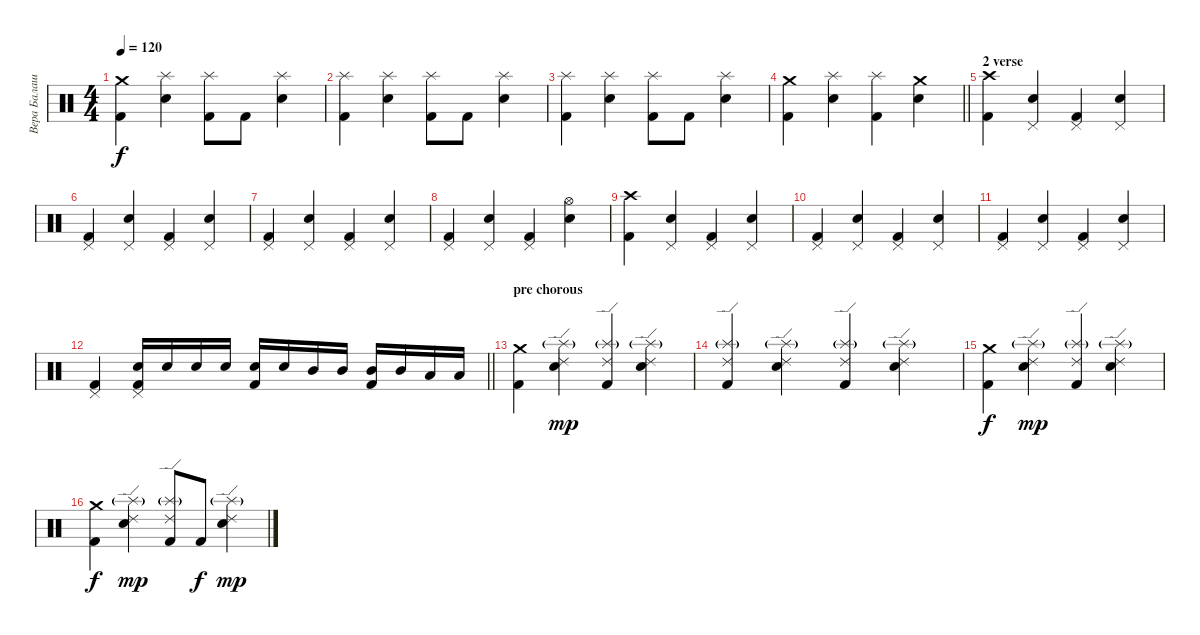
\track ("Вера Балашевич" "Вера Балаш") {instrument percussion}
\staff {score}
\articulation defaults
\ts (4 4)
\tempo 120
\clef neutral
\ks c
("Crash medium (hit)" "Kick (hit) 2").4{dy f} ("Splash (hit)" "Electric Snare (hit)").4 ("Splash (hit)" "Kick (hit) 2").8 "Kick (hit) 2".8 ("Splash (hit)" "Electric Snare (hit)").4 |
("Splash (hit)" "Kick (hit) 2").4 ("Splash (hit)" "Electric Snare (hit)").4 ("Splash (hit)" "Kick (hit) 2").8 "Kick (hit) 2".8 ("Splash (hit)" "Electric Snare (hit)").4 |
("Splash (hit)" "Kick (hit) 2").4 ("Splash (hit)" "Electric Snare (hit)").4 ("Splash (hit)" "Kick (hit) 2").8 "Kick (hit) 2".8 ("Splash (hit)" "Electric Snare (hit)").4 |
\barLineRight lightlight
("Crash medium (hit)" "Kick (hit) 2").4 ("Splash (hit)" "Electric Snare (hit)").4 ("Splash (hit)" "Kick (hit) 2").4 ("Crash medium (hit)" "Electric Snare (hit)").4 |
\section ("" "2 verse")
("Crash high (hit)" "Kick (hit) 2").4 ("Pedal Hi-Hat (hit)" "Electric Snare (hit)").4 ("Pedal Hi-Hat (hit)" "Kick (hit) 2").4 ("Pedal Hi-Hat (hit)" "Electric Snare (hit)").4 |
("Pedal Hi-Hat (hit)" "Kick (hit) 2").4 ("Pedal Hi-Hat (hit)" "Electric Snare (hit)").4 ("Pedal Hi-Hat (hit)" "Kick (hit) 2").4 ("Pedal Hi-Hat (hit)" "Electric Snare (hit)").4 |
("Pedal Hi-Hat (hit)" "Kick (hit) 2").4 ("Pedal Hi-Hat (hit)" "Electric Snare (hit)").4 ("Pedal Hi-Hat (hit)" "Kick (hit) 2").4 ("Pedal Hi-Hat (hit)" "Electric Snare (hit)").4 |
("Pedal Hi-Hat (hit)" "Kick (hit) 2").4 ("Pedal Hi-Hat (hit)" "Electric Snare (hit)").4 ("Pedal Hi-Hat (hit)" "Kick (hit) 2").4 ("Hi-Hat (open)" "Electric Snare (hit)").4 |
("Crash high (hit)" "Kick (hit) 2").4 ("Pedal Hi-Hat (hit)" "Electric Snare (hit)").4 ("Pedal Hi-Hat (hit)" "Kick (hit) 2").4 ("Pedal Hi-Hat (hit)" "Electric Snare (hit)").4 |
("Pedal Hi-Hat (hit)" "Kick (hit) 2").4 ("Pedal Hi-Hat (hit)" "Electric Snare (hit)").4 ("Pedal Hi-Hat (hit)" "Kick (hit) 2").4 ("Pedal Hi-Hat (hit)" "Electric Snare (hit)").4 |
("Pedal Hi-Hat (hit)" "Kick (hit) 2").4 ("Pedal Hi-Hat (hit)" "Electric Snare (hit)").4 ("Pedal Hi-Hat (hit)" "Kick (hit) 2").4 ("Pedal Hi-Hat (hit)" "Electric Snare (hit)").4 |
\barLineRight lightlight
("Pedal Hi-Hat (hit)" "Kick (hit) 2").4 ("Pedal Hi-Hat (hit)" "Electric Snare (hit)" "Kick (hit) 2").16 "Electric Snare (hit)".16 "Electric Snare (hit)".16 "Electric Snare (hit)".16 ("Electric Snare (hit)" "Kick (hit) 2").16 "Electric Snare (hit)".16 "Mid Tom (hit)".16 "Mid Tom (hit)".16 ("Mid Tom (hit)" "Kick (hit) 2").16 "Mid Tom (hit)".16 "Low Tom (hit)".16 "Low Tom (hit)".16 |
\section ("" "pre chorous")
("Crash medium (hit)" "Kick (hit) 2").4 ("Ride (edge) 2" "Splash (hit)"{g} "Electric Snare (hit)").4{dy mp} ("Ride (edge) 2" "Splash (hit)"{g} "Kick (hit) 2").4 ("Ride (edge) 2" "Splash (hit)"{g} "Electric Snare (hit)").4 |
("Ride (edge) 2" "Splash (hit)"{g} "Kick (hit) 2").4 ("Ride (edge) 2" "Splash (hit)"{g} "Electric Snare (hit)").4 ("Ride (edge) 2" "Splash (hit)"{g} "Kick (hit) 2").4 ("Ride (edge) 2" "Splash (hit)"{g} "Electric Snare (hit)").4 |
("Crash medium (hit)" "Kick (hit) 2").4{dy f} ("Ride (edge) 2" "Splash (hit)"{g} "Electric Snare (hit)").4{dy mp} ("Ride (edge) 2" "Splash (hit)"{g} "Kick (hit) 2").4 ("Ride (edge) 2" "Splash (hit)"{g} "Electric Snare (hit)").4 |
("Crash medium (hit)" "Kick (hit) 2").4{dy f} ("Ride (edge) 2" "Splash (hit)"{g} "Electric Snare (hit)").4{dy mp} ("Ride (edge) 2" "Splash (hit)"{g} "Kick (hit) 2").8 "Kick (hit) 2".8{dy f} ("Ride (edge) 2" "Splash (hit)"{g} "Electric Snare (hit)").4{dy mp}
